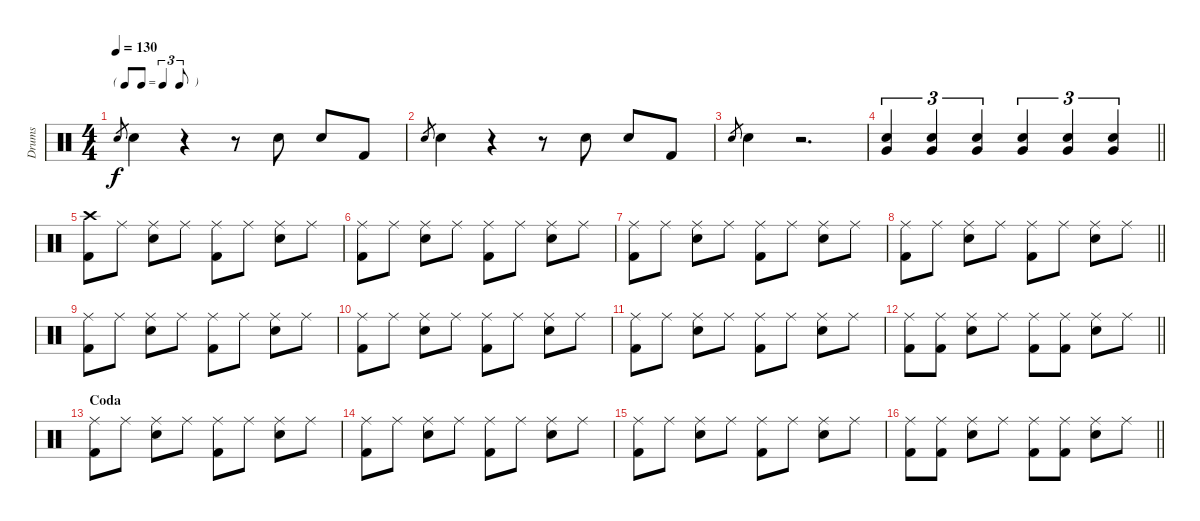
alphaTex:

\track ("Drums" "Drums") {instrument percussion}
\staff {score}
\articulation defaults
\ts (4 4)
\tf triplet8th
\tempo 130
\clef neutral
\ks c "Snare (hit) 2".8{gr dy f} "Snare (hit) 2".4
r.4 r.8 "Snare (hit) 2".8 "Snare (hit) 2".8 "Kick (hit) 2".8 |
"Snare (hit) 2".8{gr} "Snare (hit) 2".4 r.4 r.8 "Snare (hit) 2".8 "Snare (hit) 2".8 "Kick (hit) 2".8 |
"Snare (hit) 2".8{gr} "Snare (hit) 2".4 r.2{d} |
\barLineRight lightlight
("Snare (hit) 2" "Very Low Tom (hit)").4{tu (3 2)} ("Snare (hit) 2" "Very Low Tom (hit)").4{tu (3 2)} ("Snare (hit) 2" "Very Low Tom (hit)").4{tu (3 2)} ("Snare (hit) 2" "Very Low Tom (hit)").4{tu (3 2)} ("Snare (hit) 2" "Very Low Tom (hit)").4{tu (3 2)} ("Snare (hit) 2" "Very Low Tom (hit)").4{tu (3 2)} |
("Crash high (hit)" "Kick (hit) 2").8 "Ride (middle)".8 ("Ride (middle)" "Snare (hit) 2").8 "Ride (middle)".8 ("Ride (middle)" "Kick (hit) 2").8 "Ride (middle)".8 ("Ride (middle)" "Snare (hit) 2").8 "Ride (middle)".8 |
("Ride (middle)" "Kick (hit) 2").8 "Ride (middle)".8 ("Ride (middle)" "Snare (hit) 2").8 "Ride (middle)".8 ("Ride (middle)" "Kick (hit) 2").8 "Ride (middle)".8 ("Ride (middle)" "Snare (hit) 2").8 "Ride (middle)".8 |
("Ride (middle)" "Kick (hit) 2").8 "Ride (middle)".8 ("Ride (middle)" "Snare (hit) 2").8 "Ride (middle)".8 ("Ride (middle)" "Kick (hit) 2").8 "Ride (middle)".8 ("Ride (middle)" "Snare (hit) 2").8 "Ride (middle)".8 |
\barLineRight lightlight
("Ride (middle)" "Kick (hit) 2").8 "Ride (middle)".8 ("Ride (middle)" "Snare (hit) 2").8 "Ride (middle)".8 ("Ride (middle)" "Kick (hit) 2").8 "Ride (middle)".8 ("Ride (middle)" "Snare (hit) 2").8 "Ride (middle)".8 |
("Ride (middle)" "Kick (hit) 2").8 "Ride (middle)".8 ("Ride (middle)" "Snare (hit) 2").8 "Ride (middle)".8 ("Ride (middle)" "Kick (hit) 2").8 "Ride (middle)".8 ("Ride (middle)" "Snare (hit) 2").8 "Ride (middle)".8 |
("Ride (middle)" "Kick (hit) 2").8 "Ride (middle)".8 ("Ride (middle)" "Snare (hit) 2").8 "Ride (middle)".8 ("Ride (middle)" "Kick (hit) 2").8 "Ride (middle)".8 ("Ride (middle)" "Snare (hit) 2").8 "Ride (middle)".8 |
("Ride (middle)" "Kick (hit) 2").8 "Ride (middle)".8 ("Ride (middle)" "Snare (hit) 2").8 "Ride (middle)".8 ("Ride (middle)" "Kick (hit) 2").8 "Ride (middle)".8 ("Ride (middle)" "Snare (hit) 2").8 "Ride (middle)".8 |
\barLineRight lightlight
("Ride (middle)" "Kick (hit) 2").8 ("Ride (middle)" "Kick (hit) 2").8 ("Ride (middle)" "Snare (hit) 2").8 "Ride (middle)".8 ("Ride (middle)" "Kick (hit) 2").8 ("Ride (middle)" "Kick (hit) 2").8 ("Ride (middle)" "Snare (hit) 2").8 "Ride (middle)".8 |
\section ("" "Coda")
("Ride (middle)" "Kick (hit) 2").8 "Ride (middle)".8 ("Ride (middle)" "Snare (hit) 2").8 "Ride (middle)".8 ("Ride (middle)" "Kick (hit) 2").8 "Ride (middle)".8 ("Ride (middle)" "Snare (hit) 2").8 "Ride (middle)".8 |
("Ride (middle)" "Kick (hit) 2").8 "Ride (middle)".8 ("Ride (middle)" "Snare (hit) 2").8 "Ride (middle)".8 ("Ride (middle)" "Kick (hit) 2").8 "Ride (middle)".8 ("Ride (middle)" "Snare (hit) 2").8 "Ride (middle)".8 |
("Ride (middle)" "Kick (hit) 2").8 "Ride (middle)".8 ("Ride (middle)" "Snare (hit) 2").8 "Ride (middle)".8 ("Ride (middle)" "Kick (hit) 2").8 "Ride (middle)".8 ("Ride (middle)" "Snare (hit) 2").8 "Ride (middle)".8 |
\barLineRight lightlight
("Ride (middle)" "Kick (hit) 2").8 ("Ride (middle)" "Kick (hit) 2").8 ("Ride (middle)" "Snare (hit) 2").8 "Ride (middle)".8 ("Ride (middle)" "Kick (hit) 2").8 ("Ride (middle)" "Kick (hit) 2").8 ("Ride (middle)" "Snare (hit) 2").8 "Ride (middle)".8
